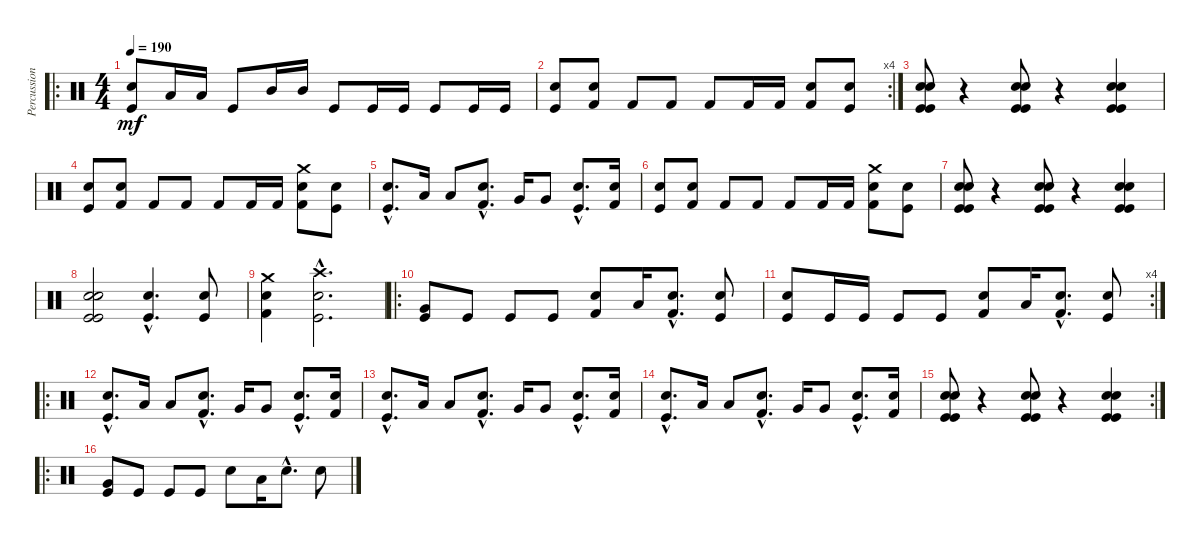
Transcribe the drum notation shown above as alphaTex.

\track ("Percussion" "Percussion") {instrument percussion}
\staff {score}
\articulation defaults
\ro
\ts (4 4)
\tempo 190
\clef neutral
\ks c
("Electric Snare (hit)" "Kick (hit)").8{dy mf} "Low Tom (hit)".16 "Low Tom (hit)".16 "Kick (hit)".8 "Mid Tom (hit)".16 "Mid Tom (hit)".16 "Kick (hit)".8 "Kick (hit)".16 "Kick (hit)".16 "Kick (hit)".8 "Kick (hit)".16 "Kick (hit)".16 |
\rc 4
("Snare (hit) 2" "Kick (hit)").8 ("Electric Snare (hit)" "Kick (hit) 2").8 "Kick (hit) 2".8 "Kick (hit) 2".8 "Kick (hit) 2".8 "Kick (hit) 2".16 "Kick (hit) 2".16 ("Electric Snare (hit)" "Kick (hit) 2").8 ("Snare (hit) 2" "Kick (hit)").8 |
("Electric Snare (hit)" "Electric Snare (hit)" "Kick (hit)" "Kick (hit)").8 r.4 ("Electric Snare (hit)" "Electric Snare (hit)" "Kick (hit)" "Kick (hit)").8 r.4 ("Electric Snare (hit)" "Electric Snare (hit)" "Kick (hit)" "Kick (hit)").4 |
("Snare (hit) 2" "Kick (hit)").8 ("Electric Snare (hit)" "Kick (hit) 2").8 "Kick (hit) 2".8 "Kick (hit) 2".8 "Kick (hit) 2".8 "Kick (hit) 2".16 "Kick (hit) 2".16 ("Electric Snare (hit)" "Kick (hit) 2" "Crash medium (hit)").8 ("Snare (hit) 2" "Kick (hit)").8 |
("Electric Snare (hit)"{hac} "Kick (hit)"{hac}).8{d} "Low Tom (hit)".16 "Low Tom (hit)".8 ("Electric Snare (hit)"{hac} "Kick (hit) 2"{hac}).8{d} "Very Low Tom (hit)".16 "Very Low Tom (hit)".8 ("Snare (hit) 2"{hac} "Kick (hit)"{hac}).8{d} ("Electric Snare (hit)" "Kick (hit) 2").16 |
("Snare (hit) 2" "Kick (hit)").8 ("Electric Snare (hit)" "Kick (hit) 2").8 "Kick (hit) 2".8 "Kick (hit) 2".8 "Kick (hit) 2".8 "Kick (hit) 2".16 "Kick (hit) 2".16 ("Electric Snare (hit)" "Kick (hit) 2" "Crash medium (hit)").8 ("Snare (hit) 2" "Kick (hit)").8 |
("Electric Snare (hit)" "Electric Snare (hit)" "Kick (hit)" "Kick (hit)").8 r.4 ("Electric Snare (hit)" "Electric Snare (hit)" "Kick (hit)" "Kick (hit)").8 r.4 ("Electric Snare (hit)" "Electric Snare (hit)" "Kick (hit)" "Kick (hit)").4 |
("Electric Snare (hit)" "Electric Snare (hit)" "Kick (hit)" "Kick (hit)").2 ("Snare (hit) 2"{hac} "Kick (hit)"{hac}).4{d} ("Snare (hit) 2" "Kick (hit)").8 |
("Electric Snare (hit)" "Kick (hit) 2" "Crash medium (hit)").4 ("Snare (hit) 2"{hac} "Kick (hit)"{hac} "Crash high (hit)"{hac}).2{d} |
\ro
("Kick (hit)" "Very Low Tom (hit)").8 "Kick (hit)".8 "Kick (hit)".8 "Kick (hit)".8 ("Electric Snare (hit)" "Kick (hit) 2").8 "Low Tom (hit)".16 ("Electric Snare (hit)"{hac} "Kick (hit) 2"{hac}).8{d} ("Snare (hit) 2" "Kick (hit)").8 |
\rc 4
("Snare (hit) 2" "Kick (hit)").8 "Kick (hit)".16 "Kick (hit)".16 "Kick (hit)".8 "Kick (hit)".8 ("Electric Snare (hit)" "Kick (hit) 2").8 "Low Tom (hit)".16 ("Electric Snare (hit)"{hac} "Kick (hit) 2"{hac}).8{d} ("Snare (hit) 2" "Kick (hit)").8 |
\ro
("Electric Snare (hit)"{hac} "Kick (hit)"{hac}).8{d} "Low Tom (hit)".16 "Low Tom (hit)".8 ("Electric Snare (hit)"{hac} "Kick (hit) 2"{hac}).8{d} "Very Low Tom (hit)".16 "Very Low Tom (hit)".8 ("Snare (hit) 2"{hac} "Kick (hit)"{hac}).8{d} ("Electric Snare (hit)" "Kick (hit) 2").16 |
("Electric Snare (hit)"{hac} "Kick (hit)"{hac}).8{d} "Low Tom (hit)".16 "Low Tom (hit)".8 ("Electric Snare (hit)"{hac} "Kick (hit) 2"{hac}).8{d} "Very Low Tom (hit)".16 "Very Low Tom (hit)".8 ("Snare (hit) 2"{hac} "Kick (hit)"{hac}).8{d} ("Electric Snare (hit)" "Kick (hit) 2").16 |
("Electric Snare (hit)"{hac} "Kick (hit)"{hac}).8{d} "Low Tom (hit)".16 "Low Tom (hit)".8 ("Electric Snare (hit)"{hac} "Kick (hit) 2"{hac}).8{d} "Very Low Tom (hit)".16 "Very Low Tom (hit)".8 ("Snare (hit) 2"{hac} "Kick (hit)"{hac}).8{d} ("Electric Snare (hit)" "Kick (hit) 2").16 |
\rc 2
("Electric Snare (hit)" "Electric Snare (hit)" "Kick (hit)" "Kick (hit)").8 r.4 ("Electric Snare (hit)" "Electric Snare (hit)" "Kick (hit)" "Kick (hit)").8 r.4 ("Electric Snare (hit)" "Electric Snare (hit)" "Kick (hit)" "Kick (hit)").4 |
\ro
("Kick (hit)" "Very Low Tom (hit)").8 "Kick (hit)".8 "Kick (hit)".8 "Kick (hit)".8 "Electric Snare (hit)".8 "Low Tom (hit)".16 "Electric Snare (hit)"{hac}.8{d} "Snare (hit) 2".8
